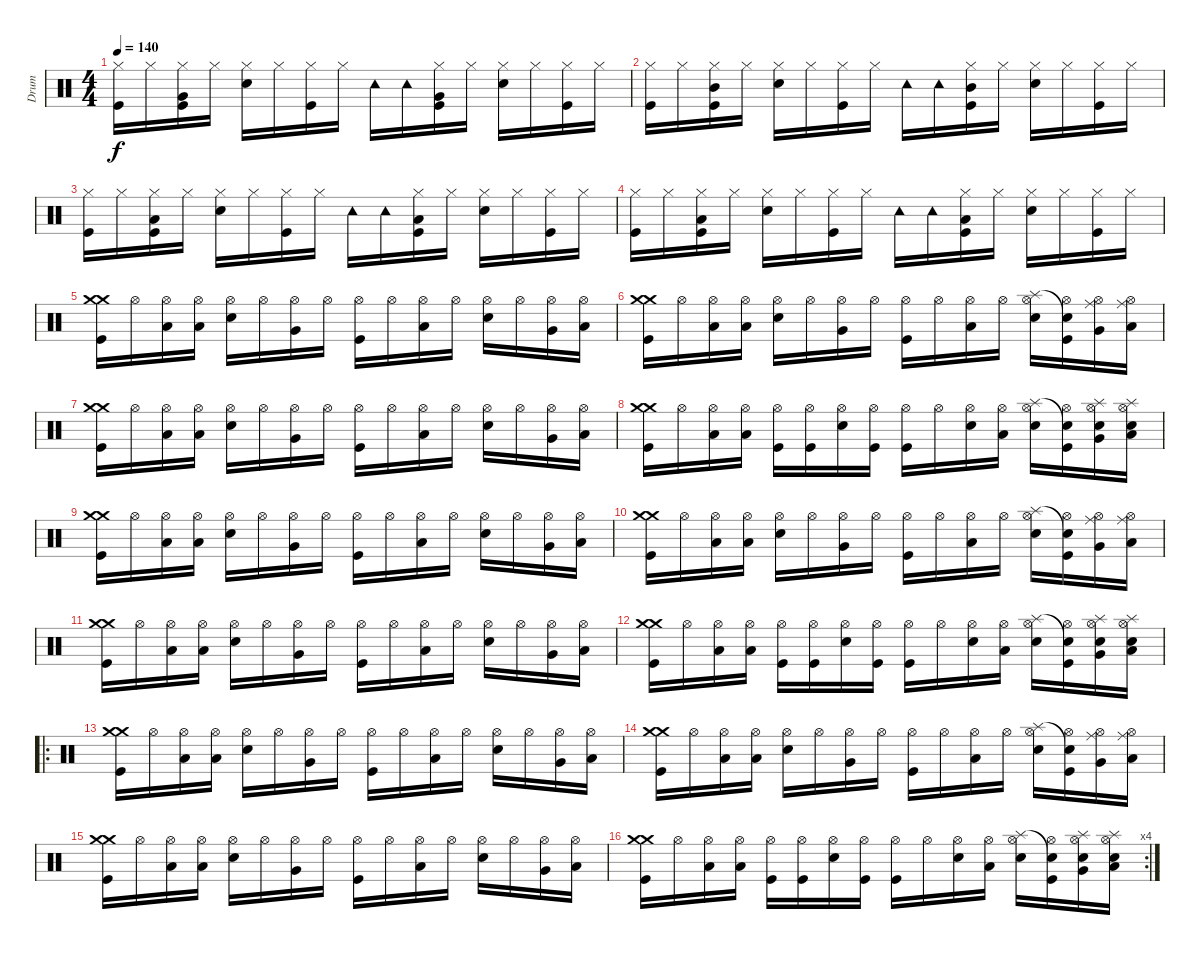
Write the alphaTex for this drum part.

\track ("Drum" "Drum") {instrument percussion}
\staff {score}
\articulation defaults
\ts (4 4)
\tempo 140
\clef neutral
\ks c
("Hi-Hat (closed)" "Kick (hit)").16{dy f} "Hi-Hat (closed)".16 ("Hi-Hat (closed)" "Very Low Tom (hit)" "Kick (hit)").16 "Hi-Hat (closed)".16 ("Hi-Hat (closed)" "Snare (hit) 2").16 "Hi-Hat (closed)".16 ("Hi-Hat (closed)" "Kick (hit)").16 "Hi-Hat (closed)".16 "Tambourine (hit)".16 "Tambourine (hit)".16 ("Hi-Hat (closed)" "Very Low Tom (hit)" "Kick (hit)").16 "Hi-Hat (closed)".16 ("Hi-Hat (closed)" "Snare (hit) 2").16 "Hi-Hat (closed)".16 ("Hi-Hat (closed)" "Kick (hit)").16 "Hi-Hat (closed)".16 |
("Hi-Hat (closed)" "Kick (hit)").16 "Hi-Hat (closed)".16 ("Hi-Hat (closed)" "Mid Tom (hit)" "Kick (hit)").16 "Hi-Hat (closed)".16 ("Hi-Hat (closed)" "Snare (hit) 2").16 "Hi-Hat (closed)".16 ("Hi-Hat (closed)" "Kick (hit)").16 "Hi-Hat (closed)".16 "Tambourine (hit)".16 "Tambourine (hit)".16 ("Hi-Hat (closed)" "Mid Tom (hit)" "Kick (hit)").16 "Hi-Hat (closed)".16 ("Hi-Hat (closed)" "Snare (hit) 2").16 "Hi-Hat (closed)".16 ("Hi-Hat (closed)" "Kick (hit)").16 "Hi-Hat (closed)".16 |
("Hi-Hat (closed)" "Kick (hit)").16 "Hi-Hat (closed)".16 ("Hi-Hat (closed)" "Low Tom (hit)" "Kick (hit)").16 "Hi-Hat (closed)".16 ("Hi-Hat (closed)" "Snare (hit) 2").16 "Hi-Hat (closed)".16 ("Hi-Hat (closed)" "Kick (hit)").16 "Hi-Hat (closed)".16 "Tambourine (hit)".16 "Tambourine (hit)".16 ("Hi-Hat (closed)" "Low Tom (hit)" "Kick (hit)").16 "Hi-Hat (closed)".16 ("Hi-Hat (closed)" "Snare (hit) 2").16 "Hi-Hat (closed)".16 ("Hi-Hat (closed)" "Kick (hit)").16 "Hi-Hat (closed)".16 |
("Hi-Hat (closed)" "Kick (hit)").16 "Hi-Hat (closed)".16 ("Hi-Hat (closed)" "Low Floor Tom (hit)" "Kick (hit)").16 "Hi-Hat (closed)".16 ("Hi-Hat (closed)" "Snare (hit) 2").16 "Hi-Hat (closed)".16 ("Hi-Hat (closed)" "Kick (hit)").16 "Hi-Hat (closed)".16 "Tambourine (hit)".16 "Tambourine (hit)".16 ("Hi-Hat (closed)" "Low Floor Tom (hit)" "Kick (hit)").16 "Hi-Hat (closed)".16 ("Hi-Hat (closed)" "Snare (hit) 2").16 "Hi-Hat (closed)".16 ("Hi-Hat (closed)" "Kick (hit)").16 "Hi-Hat (closed)".16 |
("Crash medium (hit)" "Crash medium (hit)" "Kick (hit)").16 "Hi-Hat (open)".16 ("Hi-Hat (open)" "Low Tom (hit)").16 ("Hi-Hat (open)" "Low Tom (hit)").16 ("Hi-Hat (open)" "Snare (hit) 2").16 "Hi-Hat (open)".16 ("Hi-Hat (open)" "Very Low Tom (hit)").16 "Hi-Hat (open)".16 ("Hi-Hat (open)" "Kick (hit)").16 "Hi-Hat (open)".16 ("Hi-Hat (open)" "Low Tom (hit)").16 "Hi-Hat (open)".16 ("Hi-Hat (open)" "Snare (hit) 2").16 "Hi-Hat (open)".16 ("Hi-Hat (open)" "Very Low Tom (hit)").16 ("Hi-Hat (open)" "Low Floor Tom (hit)").16 |
("Crash medium (hit)" "Crash medium (hit)" "Kick (hit)").16 "Hi-Hat (open)".16 ("Hi-Hat (open)" "Low Tom (hit)").16 ("Hi-Hat (open)" "Low Tom (hit)").16 ("Hi-Hat (open)" "Snare (hit) 2").16 "Hi-Hat (open)".16 ("Hi-Hat (open)" "Very Low Tom (hit)").16 "Hi-Hat (open)".16 ("Hi-Hat (open)" "Kick (hit)").16 "Hi-Hat (open)".16 ("Hi-Hat (open)" "Low Tom (hit)").16 "Hi-Hat (open)".16 ("Hi-Hat (open)" "Splash (hit)" "Snare (hit) 2").16 ("Hi-Hat (open)" "Snare (hit)"{t} "Kick (hit)").16 ("Hi-Hat (open)" "Ride (middle)" "Very Low Tom (hit)").16 ("Hi-Hat (open)" "Ride (middle)" "Low Floor Tom (hit)").16 |
("Crash medium (hit)" "Crash medium (hit)" "Kick (hit)").16 "Hi-Hat (open)".16 ("Hi-Hat (open)" "Low Tom (hit)").16 ("Hi-Hat (open)" "Low Tom (hit)").16 ("Hi-Hat (open)" "Snare (hit) 2").16 "Hi-Hat (open)".16 ("Hi-Hat (open)" "Very Low Tom (hit)").16 "Hi-Hat (open)".16 ("Hi-Hat (open)" "Kick (hit)").16 "Hi-Hat (open)".16 ("Hi-Hat (open)" "Low Tom (hit)").16 "Hi-Hat (open)".16 ("Hi-Hat (open)" "Snare (hit) 2").16 "Hi-Hat (open)".16 ("Hi-Hat (open)" "Very Low Tom (hit)").16 ("Hi-Hat (open)" "Low Floor Tom (hit)").16 |
("Crash medium (hit)" "Crash medium (hit)" "Kick (hit)").16 "Hi-Hat (open)".16 ("Hi-Hat (open)" "Low Tom (hit)").16 ("Hi-Hat (open)" "Low Tom (hit)").16 ("Hi-Hat (open)" "Kick (hit)").16 ("Hi-Hat (open)" "Kick (hit)").16 ("Hi-Hat (open)" "Snare (hit) 2").16 ("Hi-Hat (open)" "Kick (hit)").16 ("Hi-Hat (open)" "Kick (hit)").16 "Hi-Hat (open)".16 ("Hi-Hat (open)" "Snare (hit) 2").16 ("Hi-Hat (open)" "Low Tom (hit)").16 ("Hi-Hat (open)" "Splash (hit)" "Snare (hit) 2").16 ("Hi-Hat (open)" "Snare (hit)"{t} "Kick (hit)").16 ("Hi-Hat (open)" "Splash (hit)" "Very Low Tom (hit)" "Snare (hit) 2").16 ("Hi-Hat (open)" "Splash (hit)" "Low Floor Tom (hit)" "Snare (hit) 2").16 |
("Crash medium (hit)" "Crash medium (hit)" "Kick (hit)").16 "Hi-Hat (open)".16 ("Hi-Hat (open)" "Low Tom (hit)").16 ("Hi-Hat (open)" "Low Tom (hit)").16 ("Hi-Hat (open)" "Snare (hit) 2").16 "Hi-Hat (open)".16 ("Hi-Hat (open)" "Very Low Tom (hit)").16 "Hi-Hat (open)".16 ("Hi-Hat (open)" "Kick (hit)").16 "Hi-Hat (open)".16 ("Hi-Hat (open)" "Low Tom (hit)").16 "Hi-Hat (open)".16 ("Hi-Hat (open)" "Snare (hit) 2").16 "Hi-Hat (open)".16 ("Hi-Hat (open)" "Very Low Tom (hit)").16 ("Hi-Hat (open)" "Low Floor Tom (hit)").16 |
("Crash medium (hit)" "Crash medium (hit)" "Kick (hit)").16 "Hi-Hat (open)".16 ("Hi-Hat (open)" "Low Tom (hit)").16 ("Hi-Hat (open)" "Low Tom (hit)").16 ("Hi-Hat (open)" "Snare (hit) 2").16 "Hi-Hat (open)".16 ("Hi-Hat (open)" "Very Low Tom (hit)").16 "Hi-Hat (open)".16 ("Hi-Hat (open)" "Kick (hit)").16 "Hi-Hat (open)".16 ("Hi-Hat (open)" "Low Tom (hit)").16 "Hi-Hat (open)".16 ("Hi-Hat (open)" "Splash (hit)" "Snare (hit) 2").16 ("Hi-Hat (open)" "Snare (hit)"{t} "Kick (hit)").16 ("Hi-Hat (open)" "Ride (middle)" "Very Low Tom (hit)").16 ("Hi-Hat (open)" "Ride (middle)" "Low Floor Tom (hit)").16 |
("Crash medium (hit)" "Crash medium (hit)" "Kick (hit)").16 "Hi-Hat (open)".16 ("Hi-Hat (open)" "Low Tom (hit)").16 ("Hi-Hat (open)" "Low Tom (hit)").16 ("Hi-Hat (open)" "Snare (hit) 2").16 "Hi-Hat (open)".16 ("Hi-Hat (open)" "Very Low Tom (hit)").16 "Hi-Hat (open)".16 ("Hi-Hat (open)" "Kick (hit)").16 "Hi-Hat (open)".16 ("Hi-Hat (open)" "Low Tom (hit)").16 "Hi-Hat (open)".16 ("Hi-Hat (open)" "Snare (hit) 2").16 "Hi-Hat (open)".16 ("Hi-Hat (open)" "Very Low Tom (hit)").16 ("Hi-Hat (open)" "Low Floor Tom (hit)").16 |
("Crash medium (hit)" "Crash medium (hit)" "Kick (hit)").16 "Hi-Hat (open)".16 ("Hi-Hat (open)" "Low Tom (hit)").16 ("Hi-Hat (open)" "Low Tom (hit)").16 ("Hi-Hat (open)" "Kick (hit)").16 ("Hi-Hat (open)" "Kick (hit)").16 ("Hi-Hat (open)" "Snare (hit) 2").16 ("Hi-Hat (open)" "Kick (hit)").16 ("Hi-Hat (open)" "Kick (hit)").16 "Hi-Hat (open)".16 ("Hi-Hat (open)" "Snare (hit) 2").16 ("Hi-Hat (open)" "Low Tom (hit)").16 ("Hi-Hat (open)" "Splash (hit)" "Snare (hit) 2").16 ("Hi-Hat (open)" "Snare (hit)"{t} "Kick (hit)").16 ("Hi-Hat (open)" "Splash (hit)" "Very Low Tom (hit)" "Snare (hit) 2").16 ("Hi-Hat (open)" "Splash (hit)" "Low Floor Tom (hit)" "Snare (hit) 2").16 |
\ro
("Crash medium (hit)" "Crash medium (hit)" "Kick (hit)").16 "Hi-Hat (open)".16 ("Hi-Hat (open)" "Low Tom (hit)").16 ("Hi-Hat (open)" "Low Tom (hit)").16 ("Hi-Hat (open)" "Snare (hit) 2").16 "Hi-Hat (open)".16 ("Hi-Hat (open)" "Very Low Tom (hit)").16 "Hi-Hat (open)".16 ("Hi-Hat (open)" "Kick (hit)").16 "Hi-Hat (open)".16 ("Hi-Hat (open)" "Low Tom (hit)").16 "Hi-Hat (open)".16 ("Hi-Hat (open)" "Snare (hit) 2").16 "Hi-Hat (open)".16 ("Hi-Hat (open)" "Very Low Tom (hit)").16 ("Hi-Hat (open)" "Low Floor Tom (hit)").16 |
("Crash medium (hit)" "Crash medium (hit)" "Kick (hit)").16 "Hi-Hat (open)".16 ("Hi-Hat (open)" "Low Tom (hit)").16 ("Hi-Hat (open)" "Low Tom (hit)").16 ("Hi-Hat (open)" "Snare (hit) 2").16 "Hi-Hat (open)".16 ("Hi-Hat (open)" "Very Low Tom (hit)").16 "Hi-Hat (open)".16 ("Hi-Hat (open)" "Kick (hit)").16 "Hi-Hat (open)".16 ("Hi-Hat (open)" "Low Tom (hit)").16 "Hi-Hat (open)".16 ("Hi-Hat (open)" "Splash (hit)" "Snare (hit) 2").16 ("Hi-Hat (open)" "Snare (hit)"{t} "Kick (hit)").16 ("Hi-Hat (open)" "Ride (middle)" "Very Low Tom (hit)").16 ("Hi-Hat (open)" "Ride (middle)" "Low Floor Tom (hit)").16 |
("Crash medium (hit)" "Crash medium (hit)" "Kick (hit)").16 "Hi-Hat (open)".16 ("Hi-Hat (open)" "Low Tom (hit)").16 ("Hi-Hat (open)" "Low Tom (hit)").16 ("Hi-Hat (open)" "Snare (hit) 2").16 "Hi-Hat (open)".16 ("Hi-Hat (open)" "Very Low Tom (hit)").16 "Hi-Hat (open)".16 ("Hi-Hat (open)" "Kick (hit)").16 "Hi-Hat (open)".16 ("Hi-Hat (open)" "Low Tom (hit)").16 "Hi-Hat (open)".16 ("Hi-Hat (open)" "Snare (hit) 2").16 "Hi-Hat (open)".16 ("Hi-Hat (open)" "Very Low Tom (hit)").16 ("Hi-Hat (open)" "Low Floor Tom (hit)").16 |
\rc 4
("Crash medium (hit)" "Crash medium (hit)" "Kick (hit)").16 "Hi-Hat (open)".16 ("Hi-Hat (open)" "Low Tom (hit)").16 ("Hi-Hat (open)" "Low Tom (hit)").16 ("Hi-Hat (open)" "Kick (hit)").16 ("Hi-Hat (open)" "Kick (hit)").16 ("Hi-Hat (open)" "Snare (hit) 2").16 ("Hi-Hat (open)" "Kick (hit)").16 ("Hi-Hat (open)" "Kick (hit)").16 "Hi-Hat (open)".16 ("Hi-Hat (open)" "Snare (hit) 2").16 ("Hi-Hat (open)" "Low Tom (hit)").16 ("Hi-Hat (open)" "Splash (hit)" "Snare (hit) 2").16 ("Hi-Hat (open)" "Snare (hit)"{t} "Kick (hit)").16 ("Hi-Hat (open)" "Splash (hit)" "Very Low Tom (hit)" "Snare (hit) 2").16 ("Hi-Hat (open)" "Splash (hit)" "Low Floor Tom (hit)" "Snare (hit) 2").16
